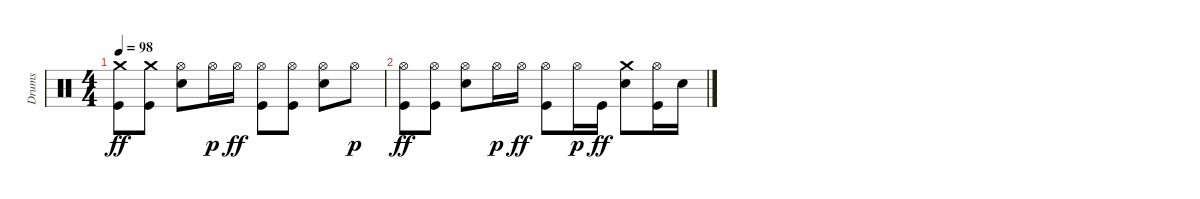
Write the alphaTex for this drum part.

\track ("Drums" "Drums") {instrument percussion}
\staff {score}
\articulation defaults
\ts (4 4)
\tempo 98
\clef neutral
\ks c
("Crash medium (hit)" "Kick (hit)").8{dy ff} ("Crash medium (hit)" "Kick (hit)").8 ("Hi-Hat (open)" "Snare (hit) 2").8 "Hi-Hat (open)".16{dy p} "Hi-Hat (open)".16{dy ff} ("Hi-Hat (open)" "Kick (hit)").8 ("Hi-Hat (open)" "Kick (hit)").8 ("Hi-Hat (open)" "Snare (hit) 2").8 "Hi-Hat (open)".8{dy p} |
("Hi-Hat (open)" "Kick (hit)").8{dy ff} ("Hi-Hat (open)" "Kick (hit)").8 ("Hi-Hat (open)" "Snare (hit) 2").8 "Hi-Hat (open)".16{dy p} "Hi-Hat (open)".16{dy ff} ("Hi-Hat (open)" "Kick (hit)").8 "Hi-Hat (open)".16{dy p} "Kick (hit)".16{dy ff} ("Crash medium (hit)" "Snare (hit) 2").8 ("Hi-Hat (open)" "Kick (hit)").16 "Snare (hit) 2".16
